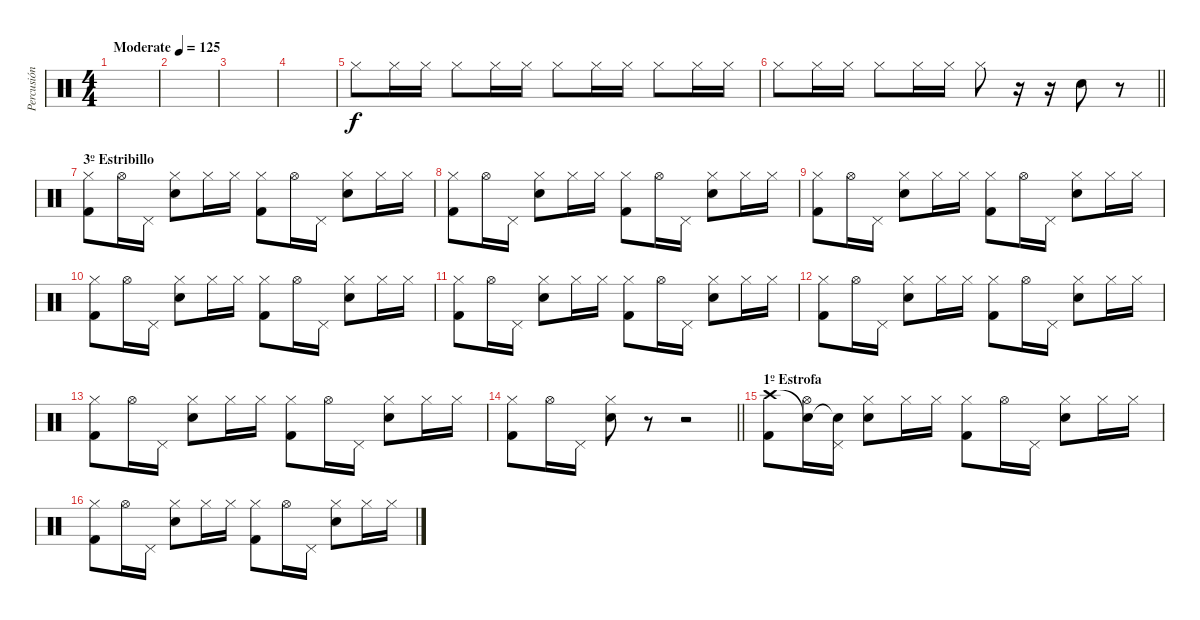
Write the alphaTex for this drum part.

\track ("Percusión" "Percusión") {instrument percussion}
\staff {score}
\articulation defaults
\ts (4 4)
\tempo (125 "Moderate")
\clef neutral
\ks c
|
|
|
|
"Hi-Hat (closed)".8 "Hi-Hat (closed)".16 "Hi-Hat (closed)".16 "Hi-Hat (closed)".8 "Hi-Hat (closed)".16 "Hi-Hat (closed)".16 "Hi-Hat (closed)".8 "Hi-Hat (closed)".16 "Hi-Hat (closed)".16 "Hi-Hat (closed)".8 "Hi-Hat (closed)".16 "Hi-Hat (closed)".16 |
\barLineRight lightlight "Hi-Hat (closed)".8 "Hi-Hat (closed)".16 "Hi-Hat (closed)".16 "Hi-Hat (closed)".8 "Hi-Hat (closed)".16 "Hi-Hat (closed)".16 "Hi-Hat (closed)".8
r.16 r.16 "Snare (hit) 2".8 r.8 |
\section ("" "3º Estribillo")
("Hi-Hat (closed)" "Kick (hit) 2").8 "Hi-Hat (open)".16 "Pedal Hi-Hat (hit)".16 ("Hi-Hat (closed)" "Snare (hit) 2").8 "Hi-Hat (closed)".16 "Hi-Hat (closed)".16 ("Hi-Hat (closed)" "Kick (hit) 2").8 "Hi-Hat (open)".16 "Pedal Hi-Hat (hit)".16 ("Hi-Hat (closed)" "Snare (hit) 2").8 "Hi-Hat (closed)".16 "Hi-Hat (closed)".16 |
("Hi-Hat (closed)" "Kick (hit) 2").8 "Hi-Hat (open)".16 "Pedal Hi-Hat (hit)".16 ("Hi-Hat (closed)" "Snare (hit) 2").8 "Hi-Hat (closed)".16 "Hi-Hat (closed)".16 ("Hi-Hat (closed)" "Kick (hit) 2").8 "Hi-Hat (open)".16 "Pedal Hi-Hat (hit)".16 ("Hi-Hat (closed)" "Snare (hit) 2").8 "Hi-Hat (closed)".16 "Hi-Hat (closed)".16 |
("Hi-Hat (closed)" "Kick (hit) 2").8 "Hi-Hat (open)".16 "Pedal Hi-Hat (hit)".16 ("Hi-Hat (closed)" "Snare (hit) 2").8 "Hi-Hat (closed)".16 "Hi-Hat (closed)".16 ("Hi-Hat (closed)" "Kick (hit) 2").8 "Hi-Hat (open)".16 "Pedal Hi-Hat (hit)".16 ("Hi-Hat (closed)" "Snare (hit) 2").8 "Hi-Hat (closed)".16 "Hi-Hat (closed)".16 |
("Hi-Hat (closed)" "Kick (hit) 2").8 "Hi-Hat (open)".16 "Pedal Hi-Hat (hit)".16 ("Hi-Hat (closed)" "Snare (hit) 2").8 "Hi-Hat (closed)".16 "Hi-Hat (closed)".16 ("Hi-Hat (closed)" "Kick (hit) 2").8 "Hi-Hat (open)".16 "Pedal Hi-Hat (hit)".16 ("Hi-Hat (closed)" "Snare (hit) 2").8 "Hi-Hat (closed)".16 "Hi-Hat (closed)".16 |
("Hi-Hat (closed)" "Kick (hit) 2").8 "Hi-Hat (open)".16 "Pedal Hi-Hat (hit)".16 ("Hi-Hat (closed)" "Snare (hit) 2").8 "Hi-Hat (closed)".16 "Hi-Hat (closed)".16 ("Hi-Hat (closed)" "Kick (hit) 2").8 "Hi-Hat (open)".16 "Pedal Hi-Hat (hit)".16 ("Hi-Hat (closed)" "Snare (hit) 2").8 "Hi-Hat (closed)".16 "Hi-Hat (closed)".16 |
("Hi-Hat (closed)" "Kick (hit) 2").8 "Hi-Hat (open)".16 "Pedal Hi-Hat (hit)".16 ("Hi-Hat (closed)" "Snare (hit) 2").8 "Hi-Hat (closed)".16 "Hi-Hat (closed)".16 ("Hi-Hat (closed)" "Kick (hit) 2").8 "Hi-Hat (open)".16 "Pedal Hi-Hat (hit)".16 ("Hi-Hat (closed)" "Snare (hit) 2").8 "Hi-Hat (closed)".16 "Hi-Hat (closed)".16 |
("Hi-Hat (closed)" "Kick (hit) 2").8 "Hi-Hat (open)".16 "Pedal Hi-Hat (hit)".16 ("Hi-Hat (closed)" "Snare (hit) 2").8 "Hi-Hat (closed)".16 "Hi-Hat (closed)".16 ("Hi-Hat (closed)" "Kick (hit) 2").8 "Hi-Hat (open)".16 "Pedal Hi-Hat (hit)".16 ("Hi-Hat (closed)" "Snare (hit) 2").8 "Hi-Hat (closed)".16 "Hi-Hat (closed)".16 |
\barLineRight lightlight
("Hi-Hat (closed)" "Kick (hit) 2").8 "Hi-Hat (open)".16 "Pedal Hi-Hat (hit)".16 ("Hi-Hat (closed)" "Snare (hit) 2").8 r.8 r.2 |
\section ("" "1º Estrofa")
("Crash high (hit)" "Kick (hit) 2").8 ("Snare (hit)"{t} "Hi-Hat (open)").16 ("Snare (hit)"{t} "Pedal Hi-Hat (hit)").16 ("Hi-Hat (closed)" "Snare (hit) 2").8 "Hi-Hat (closed)".16 "Hi-Hat (closed)".16 ("Hi-Hat (closed)" "Kick (hit) 2").8 "Hi-Hat (open)".16 "Pedal Hi-Hat (hit)".16 ("Hi-Hat (closed)" "Snare (hit) 2").8 "Hi-Hat (closed)".16 "Hi-Hat (closed)".16 |
("Hi-Hat (closed)" "Kick (hit) 2").8 "Hi-Hat (open)".16 "Pedal Hi-Hat (hit)".16 ("Hi-Hat (closed)" "Snare (hit) 2").8 "Hi-Hat (closed)".16 "Hi-Hat (closed)".16 ("Hi-Hat (closed)" "Kick (hit) 2").8 "Hi-Hat (open)".16 "Pedal Hi-Hat (hit)".16 ("Hi-Hat (closed)" "Snare (hit) 2").8 "Hi-Hat (closed)".16 "Hi-Hat (closed)".16
